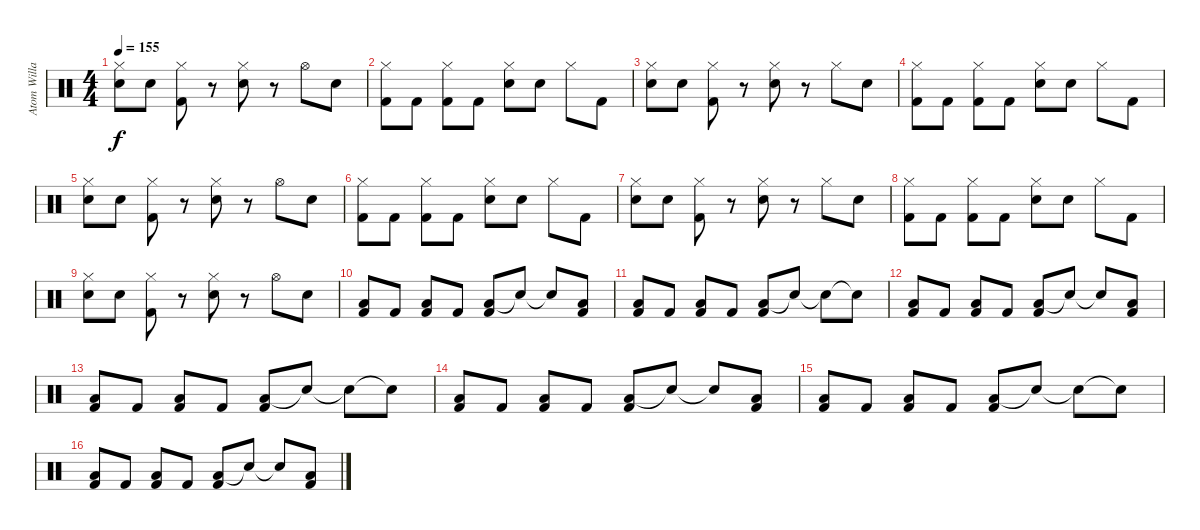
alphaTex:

\track ("Atom Willard Drums" "Atom Willa") {instrument percussion}
\staff {score}
\articulation defaults
\ts (4 4)
\tempo 155
\clef neutral
\ks c
("Snare (hit)" "Hi-Hat (closed)").8{dy f} "Electric Snare (hit)".8 ("Kick (hit) 2" "Hi-Hat (closed)").8 r.8 ("Electric Snare (hit)" "Hi-Hat (closed)").8 r.8 "Hi-Hat (open)".8 "Snare (hit)".8 |
("Kick (hit) 2" "Hi-Hat (closed)").8 "Kick (hit) 2".8 ("Kick (hit) 2" "Hi-Hat (closed)").8 "Kick (hit) 2".8 ("Electric Snare (hit)" "Hi-Hat (closed)").8 "Snare (hit)".8 "Hi-Hat (closed)".8 "Kick (hit) 2".8 |
("Snare (hit)" "Hi-Hat (closed)").8 "Electric Snare (hit)".8 ("Kick (hit) 2" "Hi-Hat (closed)").8 r.8 ("Electric Snare (hit)" "Hi-Hat (closed)").8 r.8 "Hi-Hat (closed)".8 "Snare (hit)".8 |
("Kick (hit) 2" "Hi-Hat (closed)").8 "Kick (hit) 2".8 ("Kick (hit) 2" "Hi-Hat (closed)").8 "Kick (hit) 2".8 ("Electric Snare (hit)" "Hi-Hat (closed)").8 "Snare (hit)".8 "Hi-Hat (closed)".8 "Kick (hit) 2".8 |
("Snare (hit)" "Hi-Hat (closed)").8 "Electric Snare (hit)".8 ("Kick (hit) 2" "Hi-Hat (closed)").8 r.8 ("Electric Snare (hit)" "Hi-Hat (closed)").8 r.8 "Hi-Hat (open)".8 "Snare (hit)".8 |
("Kick (hit) 2" "Hi-Hat (closed)").8 "Kick (hit) 2".8 ("Kick (hit) 2" "Hi-Hat (closed)").8 "Kick (hit) 2".8 ("Electric Snare (hit)" "Hi-Hat (closed)").8 "Snare (hit)".8 "Hi-Hat (closed)".8 "Kick (hit) 2".8 |
("Snare (hit)" "Hi-Hat (closed)").8 "Electric Snare (hit)".8 ("Kick (hit) 2" "Hi-Hat (closed)").8 r.8 ("Electric Snare (hit)" "Hi-Hat (closed)").8 r.8 "Hi-Hat (closed)".8 "Snare (hit)".8 |
("Kick (hit) 2" "Hi-Hat (closed)").8 "Kick (hit) 2".8 ("Kick (hit) 2" "Hi-Hat (closed)").8 "Kick (hit) 2".8 ("Electric Snare (hit)" "Hi-Hat (closed)").8 "Snare (hit)".8 "Hi-Hat (closed)".8 "Kick (hit) 2".8 |
("Snare (hit)" "Hi-Hat (closed)").8 "Electric Snare (hit)".8 ("Kick (hit) 2" "Hi-Hat (closed)").8 r.8 ("Electric Snare (hit)" "Hi-Hat (closed)").8 r.8 "Hi-Hat (open)".8 "Snare (hit)".8 |
("Low Tom (hit)" "Kick (hit) 2").8 "Kick (hit) 2".8 ("Low Tom (hit)" "Kick (hit) 2").8 "Kick (hit) 2".8 ("Low Tom (hit)" "Kick (hit) 2").8 "Snare (hit)"{t}.8 "Snare (hit)"{t}.8 ("Low Tom (hit)" "Kick (hit) 2").8 |
("Low Tom (hit)" "Kick (hit) 2").8 "Kick (hit) 2".8 ("Low Tom (hit)" "Kick (hit) 2").8 "Kick (hit) 2".8 ("Low Tom (hit)" "Kick (hit) 2").8 "Snare (hit)"{t}.8 "Snare (hit)"{t}.8 "Snare (hit)"{t}.8 |
("Low Tom (hit)" "Kick (hit) 2").8 "Kick (hit) 2".8 ("Low Tom (hit)" "Kick (hit) 2").8 "Kick (hit) 2".8 ("Low Tom (hit)" "Kick (hit) 2").8 "Snare (hit)"{t}.8 "Snare (hit)"{t}.8 ("Low Tom (hit)" "Kick (hit) 2").8 |
("Low Tom (hit)" "Kick (hit) 2").8 "Kick (hit) 2".8 ("Low Tom (hit)" "Kick (hit) 2").8 "Kick (hit) 2".8 ("Low Tom (hit)" "Kick (hit) 2").8 "Snare (hit)"{t}.8 "Snare (hit)"{t}.8 "Snare (hit)"{t}.8 |
("Low Tom (hit)" "Kick (hit) 2").8 "Kick (hit) 2".8 ("Low Tom (hit)" "Kick (hit) 2").8 "Kick (hit) 2".8 ("Low Tom (hit)" "Kick (hit) 2").8 "Snare (hit)"{t}.8 "Snare (hit)"{t}.8 ("Low Tom (hit)" "Kick (hit) 2").8 |
("Low Tom (hit)" "Kick (hit) 2").8 "Kick (hit) 2".8 ("Low Tom (hit)" "Kick (hit) 2").8 "Kick (hit) 2".8 ("Low Tom (hit)" "Kick (hit) 2").8 "Snare (hit)"{t}.8 "Snare (hit)"{t}.8 "Snare (hit)"{t}.8 |
("Low Tom (hit)" "Kick (hit) 2").8 "Kick (hit) 2".8 ("Low Tom (hit)" "Kick (hit) 2").8 "Kick (hit) 2".8 ("Low Tom (hit)" "Kick (hit) 2").8 "Snare (hit)"{t}.8 "Snare (hit)"{t}.8 ("Low Tom (hit)" "Kick (hit) 2").8
